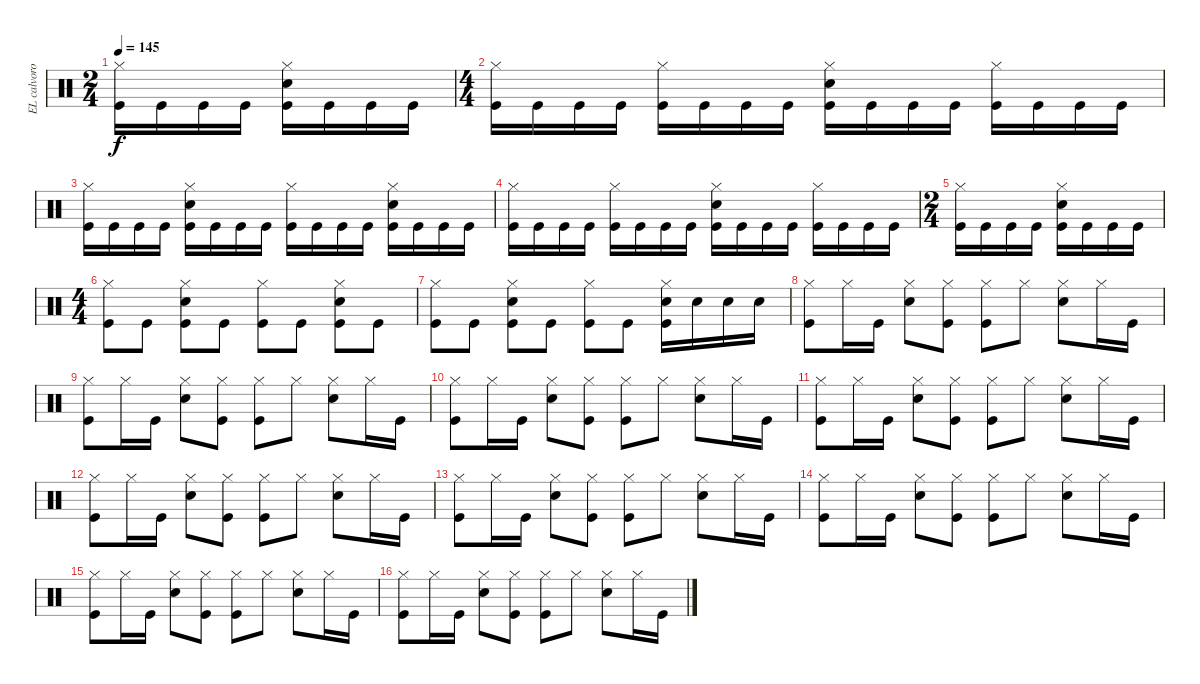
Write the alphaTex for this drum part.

\track ("EL calvorotas" "EL calvoro") {instrument percussion}
\staff {score}
\articulation defaults
\ts (2 4)
\tempo 145
\clef neutral
\ks c
("Hi-Hat (closed)" "Kick (hit)").16{dy f} "Kick (hit)".16 "Kick (hit)".16 "Kick (hit)".16 ("Hi-Hat (closed)" "Snare (hit) 2" "Kick (hit)").16 "Kick (hit)".16 "Kick (hit)".16 "Kick (hit)".16 |
\ts (4 4)
("Kick (hit)" "Hi-Hat (closed)").16 "Kick (hit)".16 "Kick (hit)".16 "Kick (hit)".16 ("Hi-Hat (closed)" "Kick (hit)").16 "Kick (hit)".16 "Kick (hit)".16 "Kick (hit)".16 ("Hi-Hat (closed)" "Kick (hit)" "Snare (hit) 2").16 "Kick (hit)".16 "Kick (hit)".16 "Kick (hit)".16 ("Hi-Hat (closed)" "Kick (hit)").16 "Kick (hit)".16 "Kick (hit)".16 "Kick (hit)".16 |
("Kick (hit)" "Hi-Hat (closed)").16 "Kick (hit)".16 "Kick (hit)".16 "Kick (hit)".16 ("Hi-Hat (closed)" "Kick (hit)" "Snare (hit) 2").16 "Kick (hit)".16 "Kick (hit)".16 "Kick (hit)".16 ("Hi-Hat (closed)" "Kick (hit)").16 "Kick (hit)".16 "Kick (hit)".16 "Kick (hit)".16 ("Hi-Hat (closed)" "Kick (hit)" "Snare (hit) 2").16 "Kick (hit)".16 "Kick (hit)".16 "Kick (hit)".16 |
("Kick (hit)" "Hi-Hat (closed)").16 "Kick (hit)".16 "Kick (hit)".16 "Kick (hit)".16 ("Hi-Hat (closed)" "Kick (hit)").16 "Kick (hit)".16 "Kick (hit)".16 "Kick (hit)".16 ("Hi-Hat (closed)" "Kick (hit)" "Snare (hit) 2").16 "Kick (hit)".16 "Kick (hit)".16 "Kick (hit)".16 ("Hi-Hat (closed)" "Kick (hit)").16 "Kick (hit)".16 "Kick (hit)".16 "Kick (hit)".16 |
\ts (2 4)
("Hi-Hat (closed)" "Kick (hit)").16 "Kick (hit)".16 "Kick (hit)".16 "Kick (hit)".16 ("Hi-Hat (closed)" "Snare (hit) 2" "Kick (hit)").16 "Kick (hit)".16 "Kick (hit)".16 "Kick (hit)".16 |
\ts (4 4)
("Kick (hit)" "Hi-Hat (closed)").8 "Kick (hit)".8 ("Snare (hit) 2" "Kick (hit)" "Hi-Hat (closed)").8 "Kick (hit)".8 ("Kick (hit)" "Hi-Hat (closed)").8 "Kick (hit)".8 ("Snare (hit) 2" "Kick (hit)" "Hi-Hat (closed)").8 "Kick (hit)".8 |
("Kick (hit)" "Hi-Hat (closed)").8 "Kick (hit)".8 ("Snare (hit) 2" "Kick (hit)" "Hi-Hat (closed)").8 "Kick (hit)".8 ("Kick (hit)" "Hi-Hat (closed)").8 "Kick (hit)".8 ("Snare (hit) 2" "Kick (hit)" "Hi-Hat (closed)").16 "Snare (hit) 2".16 "Snare (hit) 2".16 "Snare (hit) 2".16 |
("Kick (hit)" "Hi-Hat (closed)").8 "Hi-Hat (closed)".16 "Kick (hit)".16 ("Snare (hit) 2" "Hi-Hat (closed)").8 ("Kick (hit)" "Hi-Hat (closed)").8 ("Hi-Hat (closed)" "Kick (hit)").8 "Hi-Hat (closed)".8 ("Snare (hit) 2" "Hi-Hat (closed)").8 "Hi-Hat (closed)".16 "Kick (hit)".16 |
("Kick (hit)" "Hi-Hat (closed)").8 "Hi-Hat (closed)".16 "Kick (hit)".16 ("Snare (hit) 2" "Hi-Hat (closed)").8 ("Kick (hit)" "Hi-Hat (closed)").8 ("Hi-Hat (closed)" "Kick (hit)").8 "Hi-Hat (closed)".8 ("Snare (hit) 2" "Hi-Hat (closed)").8 "Hi-Hat (closed)".16 "Kick (hit)".16 |
("Kick (hit)" "Hi-Hat (closed)").8 "Hi-Hat (closed)".16 "Kick (hit)".16 ("Snare (hit) 2" "Hi-Hat (closed)").8 ("Kick (hit)" "Hi-Hat (closed)").8 ("Hi-Hat (closed)" "Kick (hit)").8 "Hi-Hat (closed)".8 ("Snare (hit) 2" "Hi-Hat (closed)").8 "Hi-Hat (closed)".16 "Kick (hit)".16 |
("Kick (hit)" "Hi-Hat (closed)").8 "Hi-Hat (closed)".16 "Kick (hit)".16 ("Snare (hit) 2" "Hi-Hat (closed)").8 ("Kick (hit)" "Hi-Hat (closed)").8 ("Hi-Hat (closed)" "Kick (hit)").8 "Hi-Hat (closed)".8 ("Snare (hit) 2" "Hi-Hat (closed)").8 "Hi-Hat (closed)".16 "Kick (hit)".16 |
("Kick (hit)" "Hi-Hat (closed)").8 "Hi-Hat (closed)".16 "Kick (hit)".16 ("Snare (hit) 2" "Hi-Hat (closed)").8 ("Kick (hit)" "Hi-Hat (closed)").8 ("Hi-Hat (closed)" "Kick (hit)").8 "Hi-Hat (closed)".8 ("Snare (hit) 2" "Hi-Hat (closed)").8 "Hi-Hat (closed)".16 "Kick (hit)".16 |
("Kick (hit)" "Hi-Hat (closed)").8 "Hi-Hat (closed)".16 "Kick (hit)".16 ("Snare (hit) 2" "Hi-Hat (closed)").8 ("Kick (hit)" "Hi-Hat (closed)").8 ("Hi-Hat (closed)" "Kick (hit)").8 "Hi-Hat (closed)".8 ("Snare (hit) 2" "Hi-Hat (closed)").8 "Hi-Hat (closed)".16 "Kick (hit)".16 |
("Kick (hit)" "Hi-Hat (closed)").8 "Hi-Hat (closed)".16 "Kick (hit)".16 ("Snare (hit) 2" "Hi-Hat (closed)").8 ("Kick (hit)" "Hi-Hat (closed)").8 ("Hi-Hat (closed)" "Kick (hit)").8 "Hi-Hat (closed)".8 ("Snare (hit) 2" "Hi-Hat (closed)").8 "Hi-Hat (closed)".16 "Kick (hit)".16 |
("Kick (hit)" "Hi-Hat (closed)").8 "Hi-Hat (closed)".16 "Kick (hit)".16 ("Snare (hit) 2" "Hi-Hat (closed)").8 ("Kick (hit)" "Hi-Hat (closed)").8 ("Hi-Hat (closed)" "Kick (hit)").8 "Hi-Hat (closed)".8 ("Snare (hit) 2" "Hi-Hat (closed)").8 "Hi-Hat (closed)".16 "Kick (hit)".16 |
("Kick (hit)" "Hi-Hat (closed)").8 "Hi-Hat (closed)".16 "Kick (hit)".16 ("Snare (hit) 2" "Hi-Hat (closed)").8 ("Kick (hit)" "Hi-Hat (closed)").8 ("Hi-Hat (closed)" "Kick (hit)").8 "Hi-Hat (closed)".8 ("Snare (hit) 2" "Hi-Hat (closed)").8 "Hi-Hat (closed)".16 "Kick (hit)".16
